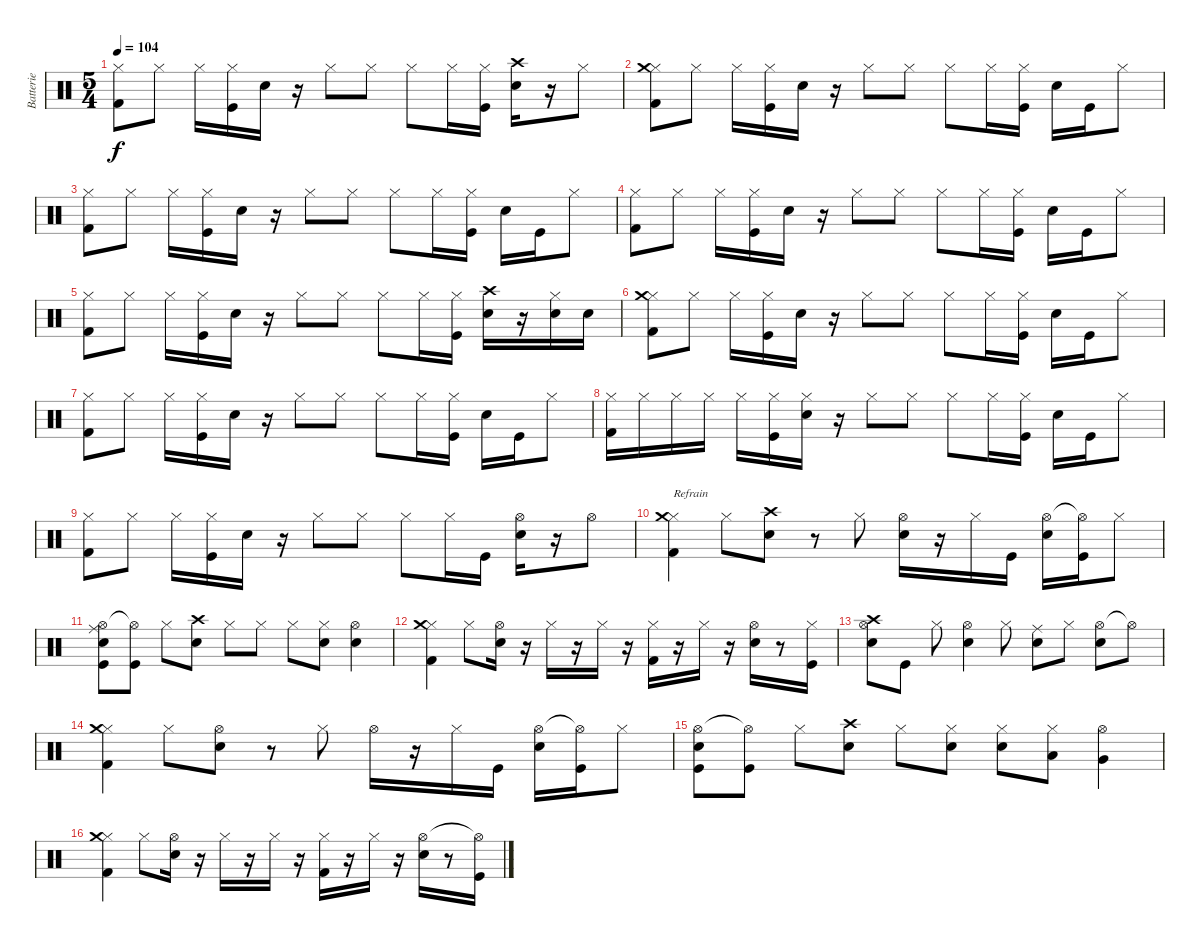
\track ("Batterie" "Batterie") {instrument percussion}
\staff {score}
\articulation defaults
\ts (5 4)
\tempo 104
\clef neutral
\ks c
("Hi-Hat (closed)" "Kick (hit) 2").8{dy f} "Hi-Hat (closed)".8 "Hi-Hat (closed)".16 ("Hi-Hat (closed)" "Kick (hit)").16 "Electric Snare (hit)".16 r.16 "Hi-Hat (closed)".8 "Hi-Hat (closed)".8 "Hi-Hat (closed)".8 "Hi-Hat (closed)".16 ("Hi-Hat (closed)" "Kick (hit)").16 ("Crash high (hit)" "Electric Snare (hit)").16 r.16 "Hi-Hat (closed)".8 |
("Hi-Hat (closed)" "Crash medium (hit)" "Kick (hit) 2").8 "Hi-Hat (closed)".8 "Hi-Hat (closed)".16 ("Hi-Hat (closed)" "Kick (hit)").16 "Electric Snare (hit)".16 r.16 "Hi-Hat (closed)".8 "Hi-Hat (closed)".8 "Hi-Hat (closed)".8 "Hi-Hat (closed)".16 ("Hi-Hat (closed)" "Kick (hit)").16 "Electric Snare (hit)".16 "Kick (hit)".16 "Hi-Hat (closed)".8 |
("Hi-Hat (closed)" "Kick (hit) 2").8 "Hi-Hat (closed)".8 "Hi-Hat (closed)".16 ("Hi-Hat (closed)" "Kick (hit)").16 "Electric Snare (hit)".16 r.16 "Hi-Hat (closed)".8 "Hi-Hat (closed)".8 "Hi-Hat (closed)".8 "Hi-Hat (closed)".16 ("Hi-Hat (closed)" "Kick (hit)").16 "Electric Snare (hit)".16 "Kick (hit)".16 "Hi-Hat (closed)".8 |
("Hi-Hat (closed)" "Kick (hit) 2").8 "Hi-Hat (closed)".8 "Hi-Hat (closed)".16 ("Hi-Hat (closed)" "Kick (hit)").16 "Electric Snare (hit)".16 r.16 "Hi-Hat (closed)".8 "Hi-Hat (closed)".8 "Hi-Hat (closed)".8 "Hi-Hat (closed)".16 ("Hi-Hat (closed)" "Kick (hit)").16 "Electric Snare (hit)".16 "Kick (hit)".16 "Hi-Hat (closed)".8 |
("Hi-Hat (closed)" "Kick (hit) 2").8 "Hi-Hat (closed)".8 "Hi-Hat (closed)".16 ("Hi-Hat (closed)" "Kick (hit)").16 "Electric Snare (hit)".16 r.16 "Hi-Hat (closed)".8 "Hi-Hat (closed)".8 "Hi-Hat (closed)".8 "Hi-Hat (closed)".16 ("Hi-Hat (closed)" "Kick (hit)").16 ("Crash high (hit)" "Electric Snare (hit)").16 r.16 ("Hi-Hat (closed)" "Electric Snare (hit)").16 "Electric Snare (hit)".16 |
("Hi-Hat (closed)" "Crash medium (hit)" "Kick (hit) 2").8 "Hi-Hat (closed)".8 "Hi-Hat (closed)".16 ("Hi-Hat (closed)" "Kick (hit)").16 "Electric Snare (hit)".16 r.16 "Hi-Hat (closed)".8 "Hi-Hat (closed)".8 "Hi-Hat (closed)".8 "Hi-Hat (closed)".16 ("Hi-Hat (closed)" "Kick (hit)").16 "Electric Snare (hit)".16 "Kick (hit)".16 "Hi-Hat (closed)".8 |
("Hi-Hat (closed)" "Kick (hit) 2").8 "Hi-Hat (closed)".8 "Hi-Hat (closed)".16 ("Hi-Hat (closed)" "Kick (hit)").16 "Electric Snare (hit)".16 r.16 "Hi-Hat (closed)".8 "Hi-Hat (closed)".8 "Hi-Hat (closed)".8 "Hi-Hat (closed)".16 ("Hi-Hat (closed)" "Kick (hit)").16 "Electric Snare (hit)".16 "Kick (hit)".16 "Hi-Hat (closed)".8 |
("Hi-Hat (closed)" "Kick (hit) 2").16 "Hi-Hat (closed)".16 "Hi-Hat (closed)".16 "Hi-Hat (closed)".16 "Hi-Hat (closed)".16 ("Hi-Hat (closed)" "Kick (hit)").16 ("Hi-Hat (closed)" "Electric Snare (hit)").16 r.16 "Hi-Hat (closed)".8 "Hi-Hat (closed)".8 "Hi-Hat (closed)".8 "Hi-Hat (closed)".16 ("Hi-Hat (closed)" "Kick (hit)").16 "Electric Snare (hit)".16 "Kick (hit)".16 "Hi-Hat (closed)".8 |
("Hi-Hat (closed)" "Kick (hit) 2").8 "Hi-Hat (closed)".8 "Hi-Hat (closed)".16 ("Hi-Hat (closed)" "Kick (hit)").16 "Electric Snare (hit)".16 r.16 "Hi-Hat (closed)".8 "Hi-Hat (closed)".8 "Hi-Hat (closed)".8 "Hi-Hat (closed)".16 "Kick (hit)".16 ("Hi-Hat (open)" "Electric Snare (hit)").16 r.16 "Hi-Hat (open)".8 |
("Hi-Hat (closed)" "Crash medium (hit)" "Kick (hit) 2").4{txt "Refrain"} "Hi-Hat (closed)".8 ("Crash high (hit)" "Electric Snare (hit)").8 r.8 "Hi-Hat (closed)".8 ("Hi-Hat (open)" "Electric Snare (hit)").16 r.16 "Hi-Hat (closed)".16 "Kick (hit)".16 ("Hi-Hat (open)" "Electric Snare (hit)").16 ("Hi-Hat (open)"{t} "Kick (hit)").16 "Hi-Hat (closed)".8 |
("Hi-Hat (open)" "Ride (middle)" "Electric Snare (hit)" "Kick (hit)").8 ("Hi-Hat (open)"{t} "Kick (hit)").8 "Hi-Hat (closed)".8 ("Crash high (hit)" "Electric Snare (hit)").8 "Hi-Hat (closed)".8 "Hi-Hat (closed)".8 "Hi-Hat (closed)".8 ("Hi-Hat (closed)" "Electric Snare (hit)").8 ("Hi-Hat (open)" "Electric Snare (hit)").4 |
("Hi-Hat (closed)" "Crash medium (hit)" "Kick (hit) 2").4 "Hi-Hat (closed)".8 ("Hi-Hat (open)" "Electric Snare (hit)").16 r.16 "Hi-Hat (closed)".16 r.16 "Hi-Hat (closed)".16 r.16 ("Hi-Hat (closed)" "Kick (hit) 2").16 r.16 "Hi-Hat (closed)".16 r.16 ("Hi-Hat (open)" "Electric Snare (hit)").16 r.8 ("Hi-Hat (closed)" "Kick (hit)").16 |
("Hi-Hat (open)" "Crash high (hit)" "Electric Snare (hit)").8 "Kick (hit)".8 "Hi-Hat (closed)".8 ("Hi-Hat (open)" "Electric Snare (hit)").4 "Hi-Hat (closed)".8 ("Ride (middle)" "Electric Snare (hit)").8 "Hi-Hat (closed)".8 ("Hi-Hat (open)" "Electric Snare (hit)").8 "Hi-Hat (open)"{t}.8 |
("Hi-Hat (closed)" "Crash medium (hit)" "Kick (hit) 2").4 "Hi-Hat (closed)".8 ("Hi-Hat (open)" "Electric Snare (hit)").8 r.8 "Hi-Hat (closed)".8 "Hi-Hat (open)".16 r.16 "Hi-Hat (closed)".16 "Kick (hit)".16 ("Hi-Hat (open)" "Electric Snare (hit)").16 ("Hi-Hat (open)"{t} "Kick (hit)").16 "Hi-Hat (closed)".8 |
("Hi-Hat (open)" "Electric Snare (hit)" "Kick (hit)").8 ("Hi-Hat (open)"{t} "Kick (hit)").8 "Hi-Hat (closed)".8 ("Crash high (hit)" "Electric Snare (hit)").8 "Hi-Hat (closed)".8 ("Hi-Hat (closed)" "Electric Snare (hit)").8 ("Hi-Hat (closed)" "Electric Snare (hit)").8 ("Hi-Hat (closed)" "Low Tom (hit)").8 ("Hi-Hat (open)" "Very Low Tom (hit)").4 |
("Hi-Hat (closed)" "Crash medium (hit)" "Kick (hit) 2").4 "Hi-Hat (closed)".8 ("Hi-Hat (open)" "Electric Snare (hit)").16 r.16 "Hi-Hat (closed)".16 r.16 "Hi-Hat (closed)".16 r.16 ("Hi-Hat (closed)" "Kick (hit) 2").16 r.16 "Hi-Hat (closed)".16 r.16 ("Hi-Hat (open)" "Electric Snare (hit)").16 r.8 ("Hi-Hat (open)"{t} "Kick (hit)").16
